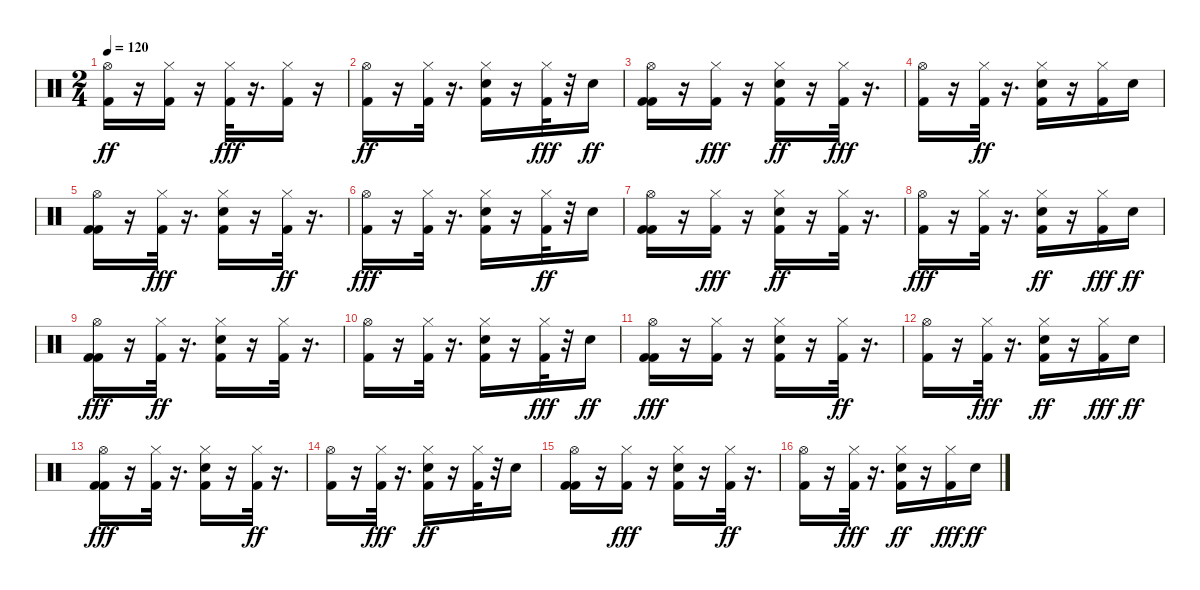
\track "" {instrument percussion}
\staff {score}
\articulation defaults
\ts (2 4)
\tempo 120
\clef neutral
\ks c
("Hi-Hat (open)" "Kick (hit) 2").16{dy ff} r.16 ("Hi-Hat (closed)" "Kick (hit) 2").16 r.16 ("Kick (hit) 2" "Hi-Hat (closed)").32{dy fff} r.16{d} ("Kick (hit) 2" "Hi-Hat (closed)").16 r.16 |
("Hi-Hat (open)" "Kick (hit) 2").16{dy ff} r.16 ("Hi-Hat (closed)" "Kick (hit) 2").32 r.16{d} ("Snare (hit) 2" "Hi-Hat (closed)" "Kick (hit) 2").16 r.16 ("Kick (hit) 2" "Hi-Hat (closed)").32{dy fff} r.32 "Snare (hit) 2".16{dy ff} |
("Kick (hit) 2" "Hi-Hat (open)" "Kick (hit) 2").16 r.16 ("Kick (hit) 2" "Hi-Hat (closed)").16{dy fff} r.16 ("Kick (hit) 2" "Hi-Hat (closed)" "Snare (hit) 2").16{dy ff} r.16 ("Kick (hit) 2" "Hi-Hat (closed)").32{dy fff} r.16{d} |
("Kick (hit) 2" "Hi-Hat (open)").16 r.16 ("Hi-Hat (closed)" "Kick (hit) 2").32{dy ff} r.16{d} ("Hi-Hat (closed)" "Kick (hit) 2" "Snare (hit) 2").16 r.16 ("Hi-Hat (closed)" "Kick (hit) 2").16 "Snare (hit) 2".16 |
("Hi-Hat (open)" "Kick (hit) 2" "Kick (hit) 2").16 r.16 ("Kick (hit) 2" "Hi-Hat (closed)").32{dy fff} r.16{d} ("Kick (hit) 2" "Snare (hit) 2" "Hi-Hat (closed)").16 r.16 ("Hi-Hat (closed)" "Kick (hit) 2").32{dy ff} r.16{d} |
("Kick (hit) 2" "Hi-Hat (open)").16{dy fff} r.16 ("Kick (hit) 2" "Hi-Hat (closed)").32 r.16{d} ("Snare (hit) 2" "Kick (hit) 2" "Hi-Hat (closed)").16 r.16 ("Hi-Hat (closed)" "Kick (hit) 2").32{dy ff} r.32 "Snare (hit) 2".16 |
("Kick (hit) 2" "Hi-Hat (open)" "Kick (hit) 2").16 r.16 ("Kick (hit) 2" "Hi-Hat (closed)").16{dy fff} r.16 ("Hi-Hat (closed)" "Snare (hit) 2" "Kick (hit) 2").16{dy ff} r.16 ("Hi-Hat (closed)" "Kick (hit) 2").32 r.16{d} |
("Kick (hit) 2" "Hi-Hat (open)").16{dy fff} r.16 ("Kick (hit) 2" "Hi-Hat (closed)").32 r.16{d} ("Hi-Hat (closed)" "Snare (hit) 2" "Kick (hit) 2").16{dy ff} r.16 ("Kick (hit) 2" "Hi-Hat (closed)").16{dy fff} "Snare (hit) 2".16{dy ff} |
("Kick (hit) 2" "Kick (hit) 2" "Hi-Hat (open)").16{dy fff} r.16 ("Hi-Hat (closed)" "Kick (hit) 2").32{dy ff} r.16{d} ("Kick (hit) 2" "Hi-Hat (closed)" "Snare (hit) 2").16 r.16 ("Hi-Hat (closed)" "Kick (hit) 2").32 r.16{d} |
("Hi-Hat (open)" "Kick (hit) 2").16 r.16 ("Hi-Hat (closed)" "Kick (hit) 2").32 r.16{d} ("Kick (hit) 2" "Hi-Hat (closed)" "Snare (hit) 2").16 r.16 ("Kick (hit) 2" "Hi-Hat (closed)").32{dy fff} r.32 "Snare (hit) 2".16{dy ff} |
("Kick (hit) 2" "Kick (hit) 2" "Hi-Hat (open)").16{dy fff} r.16 ("Kick (hit) 2" "Hi-Hat (closed)").16 r.16 ("Snare (hit) 2" "Kick (hit) 2" "Hi-Hat (closed)").16 r.16 ("Hi-Hat (closed)" "Kick (hit) 2").32{dy ff} r.16{d} |
("Hi-Hat (open)" "Kick (hit) 2").16 r.16 ("Kick (hit) 2" "Hi-Hat (closed)").32{dy fff} r.16{d} ("Hi-Hat (closed)" "Snare (hit) 2" "Kick (hit) 2").16{dy ff} r.16 ("Kick (hit) 2" "Hi-Hat (closed)").16{dy fff} "Snare (hit) 2".16{dy ff} |
("Kick (hit) 2" "Kick (hit) 2" "Hi-Hat (open)").16{dy fff} r.16 ("Kick (hit) 2" "Hi-Hat (closed)").32 r.16{d} ("Kick (hit) 2" "Snare (hit) 2" "Hi-Hat (closed)").16 r.16 ("Hi-Hat (closed)" "Kick (hit) 2").32{dy ff} r.16{d} |
("Hi-Hat (open)" "Kick (hit) 2").16 r.16 ("Kick (hit) 2" "Hi-Hat (closed)").32{dy fff} r.16{d} ("Hi-Hat (closed)" "Kick (hit) 2" "Snare (hit) 2").16{dy ff} r.16 ("Hi-Hat (closed)" "Kick (hit) 2").32 r.32 "Snare (hit) 2".16 |
("Kick (hit) 2" "Hi-Hat (open)" "Kick (hit) 2").16 r.16 ("Kick (hit) 2" "Hi-Hat (closed)").16{dy fff} r.16 ("Kick (hit) 2" "Snare (hit) 2" "Hi-Hat (closed)").16 r.16 ("Hi-Hat (closed)" "Kick (hit) 2").32{dy ff} r.16{d} |
("Hi-Hat (open)" "Kick (hit) 2").16 r.16 ("Kick (hit) 2" "Hi-Hat (closed)").32{dy fff} r.16{d} ("Kick (hit) 2" "Hi-Hat (closed)" "Snare (hit) 2").16{dy ff} r.16 ("Kick (hit) 2" "Hi-Hat (closed)").16{dy fff} "Snare (hit) 2".16{dy ff}
